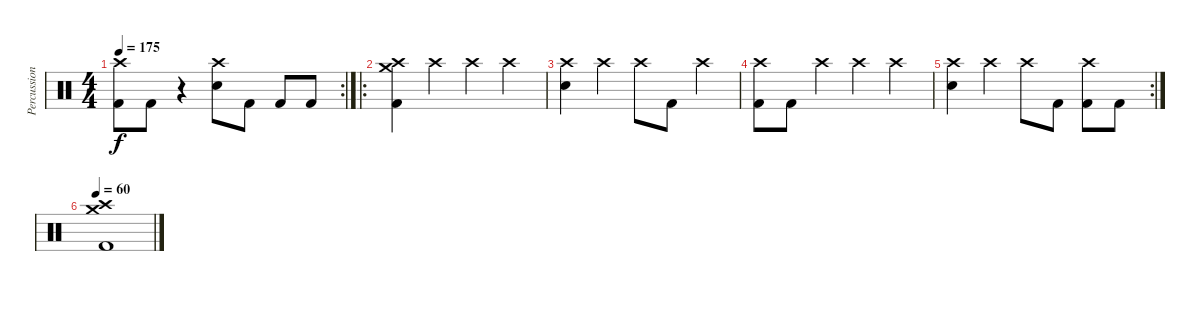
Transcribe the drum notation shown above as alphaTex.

\track ("Percussion" "Percussion") {instrument percussion}
\staff {score}
\articulation defaults
\rc 2
\ts (4 4)
\tempo 175
\clef neutral
\ks c
("Crash high (hit)" "Kick (hit) 2").8{dy f} "Kick (hit) 2".8 r.4 ("Crash high (hit)" "Electric Snare (hit)").8 "Kick (hit) 2".8 "Kick (hit) 2".8 "Kick (hit) 2".8 |
\ro
("Crash high (hit)" "Crash medium (hit)" "Kick (hit) 2").4 "Crash high (hit)".4 "Crash high (hit)".4 "Crash high (hit)".4 |
("Crash high (hit)" "Electric Snare (hit)").4 "Crash high (hit)".4 "Crash high (hit)".8 "Kick (hit) 2".8 "Crash high (hit)".4 |
("Crash high (hit)" "Kick (hit) 2").8 "Kick (hit) 2".8 "Crash high (hit)".4 "Crash high (hit)".4 "Crash high (hit)".4 |
\rc 2
("Crash high (hit)" "Electric Snare (hit)").4 "Crash high (hit)".4 "Crash high (hit)".8 "Kick (hit) 2".8 ("Crash high (hit)" "Kick (hit) 2").8 "Kick (hit) 2".8 |
\tempo 60
("Crash high (hit)" "Crash medium (hit)" "Kick (hit) 2").1
